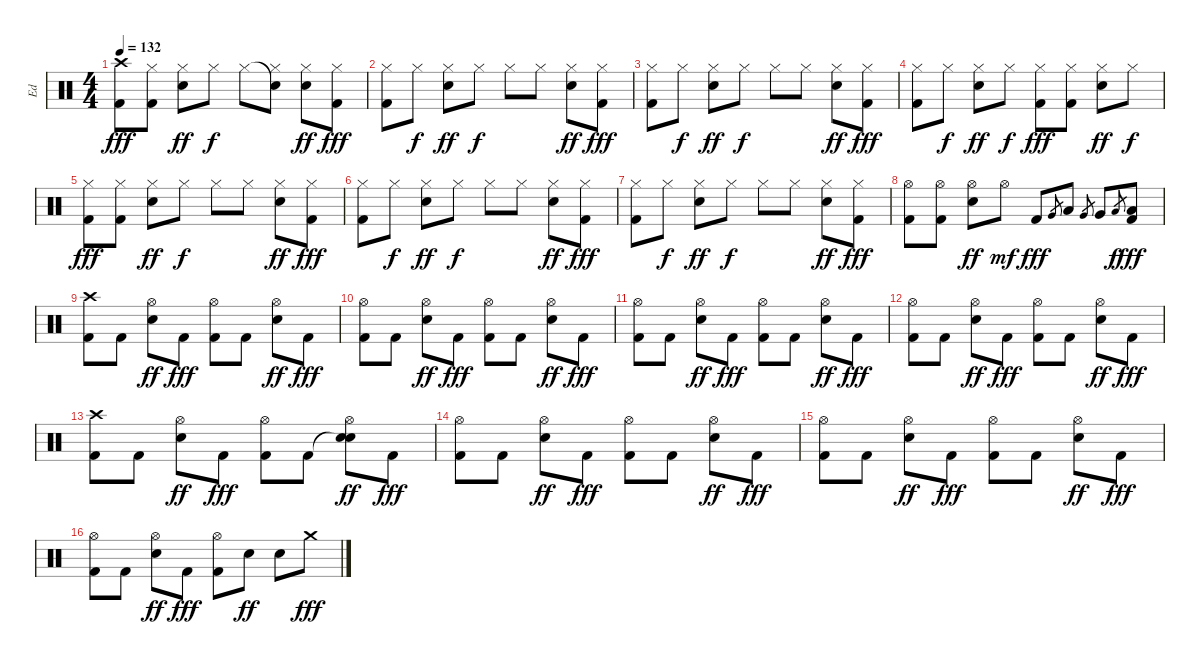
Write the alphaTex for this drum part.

\track ("Ed" "Ed") {instrument percussion}
\staff {score}
\articulation defaults
\ts (4 4)
\tempo 132
\clef neutral
\ks c
("Crash high (hit)" "Kick (hit) 2").8{dy fff} ("Hi-Hat (closed)" "Kick (hit) 2").8 ("Hi-Hat (closed)" "Electric Snare (hit)").8{dy ff} "Hi-Hat (closed)".8{dy f} "Hi-Hat (closed)".8 ("Snare (hit)"{t} "Hi-Hat (closed)").8 ("Hi-Hat (closed)" "Electric Snare (hit)").8{dy ff} ("Hi-Hat (closed)" "Kick (hit) 2").8{dy fff} |
("Hi-Hat (closed)" "Kick (hit) 2").8 "Hi-Hat (closed)".8{dy f} ("Hi-Hat (closed)" "Electric Snare (hit)").8{dy ff} "Hi-Hat (closed)".8{dy f} "Hi-Hat (closed)".8 "Hi-Hat (closed)".8 ("Hi-Hat (closed)" "Electric Snare (hit)").8{dy ff} ("Hi-Hat (closed)" "Kick (hit) 2").8{dy fff} |
("Hi-Hat (closed)" "Kick (hit) 2").8 "Hi-Hat (closed)".8{dy f} ("Hi-Hat (closed)" "Electric Snare (hit)").8{dy ff} "Hi-Hat (closed)".8{dy f} "Hi-Hat (closed)".8 "Hi-Hat (closed)".8 ("Hi-Hat (closed)" "Electric Snare (hit)").8{dy ff} ("Hi-Hat (closed)" "Kick (hit) 2").8{dy fff} |
("Hi-Hat (closed)" "Kick (hit) 2").8 "Hi-Hat (closed)".8{dy f} ("Hi-Hat (closed)" "Electric Snare (hit)").8{dy ff} "Hi-Hat (closed)".8{dy f} ("Hi-Hat (closed)" "Kick (hit) 2").8{dy fff} ("Hi-Hat (closed)" "Kick (hit) 2").8 ("Hi-Hat (closed)" "Electric Snare (hit)").8{dy ff} "Hi-Hat (closed)".8{dy f} |
("Hi-Hat (closed)" "Kick (hit) 2").8{dy fff} ("Hi-Hat (closed)" "Kick (hit) 2").8 ("Hi-Hat (closed)" "Electric Snare (hit)").8{dy ff} "Hi-Hat (closed)".8{dy f} "Hi-Hat (closed)".8 "Hi-Hat (closed)".8 ("Hi-Hat (closed)" "Electric Snare (hit)").8{dy ff} ("Hi-Hat (closed)" "Kick (hit) 2").8{dy fff} |
("Hi-Hat (closed)" "Kick (hit) 2").8 "Hi-Hat (closed)".8{dy f} ("Hi-Hat (closed)" "Electric Snare (hit)").8{dy ff} "Hi-Hat (closed)".8{dy f} "Hi-Hat (closed)".8 "Hi-Hat (closed)".8 ("Hi-Hat (closed)" "Electric Snare (hit)").8{dy ff} ("Hi-Hat (closed)" "Kick (hit) 2").8{dy fff} |
("Hi-Hat (closed)" "Kick (hit) 2").8 "Hi-Hat (closed)".8{dy f} ("Hi-Hat (closed)" "Electric Snare (hit)").8{dy ff} "Hi-Hat (closed)".8{dy f} "Hi-Hat (closed)".8 "Hi-Hat (closed)".8 ("Hi-Hat (closed)" "Electric Snare (hit)").8{dy ff} ("Hi-Hat (closed)" "Kick (hit) 2").8{dy fff} |
("Hi-Hat (open)" "Kick (hit) 2").8 ("Hi-Hat (open)" "Kick (hit) 2").8 ("Hi-Hat (open)" "Electric Snare (hit)").8{dy ff} "Hi-Hat (open)".8{dy mf} "Kick (hit) 2".8{dy fff} "Very Low Tom (hit)".8{gr} "Low Tom (hit)".8 "Very Low Tom (hit)".8{gr} "Very Low Tom (hit)".8 "Low Floor Tom (hit)".8{gr dy f} ("Low Floor Tom (hit)" "Kick (hit) 2").8{dy fff} |
("Crash high (hit)" "Kick (hit) 2").8 "Kick (hit) 2".8 ("Hi-Hat (open)" "Electric Snare (hit)").8{dy ff} "Kick (hit) 2".8{dy fff} ("Hi-Hat (open)" "Kick (hit) 2").8 "Kick (hit) 2".8 ("Hi-Hat (open)" "Electric Snare (hit)").8{dy ff} "Kick (hit) 2".8{dy fff} |
("Hi-Hat (open)" "Kick (hit) 2").8 "Kick (hit) 2".8 ("Hi-Hat (open)" "Electric Snare (hit)").8{dy ff} "Kick (hit) 2".8{dy fff} ("Hi-Hat (open)" "Kick (hit) 2").8 "Kick (hit) 2".8 ("Hi-Hat (open)" "Electric Snare (hit)").8{dy ff} "Kick (hit) 2".8{dy fff} |
("Hi-Hat (open)" "Kick (hit) 2").8 "Kick (hit) 2".8 ("Hi-Hat (open)" "Electric Snare (hit)").8{dy ff} "Kick (hit) 2".8{dy fff} ("Hi-Hat (open)" "Kick (hit) 2").8 "Kick (hit) 2".8 ("Hi-Hat (open)" "Electric Snare (hit)").8{dy ff} "Kick (hit) 2".8{dy fff} |
("Hi-Hat (open)" "Kick (hit) 2").8 "Kick (hit) 2".8 ("Hi-Hat (open)" "Electric Snare (hit)").8{dy ff} "Kick (hit) 2".8{dy fff} ("Hi-Hat (open)" "Kick (hit) 2").8 "Kick (hit) 2".8 ("Hi-Hat (open)" "Electric Snare (hit)").8{dy ff} "Kick (hit) 2".8{dy fff} |
("Crash high (hit)" "Kick (hit) 2").8 "Kick (hit) 2".8 ("Hi-Hat (open)" "Electric Snare (hit)").8{dy ff} "Kick (hit) 2".8{dy fff} ("Hi-Hat (open)" "Kick (hit) 2").8 "Kick (hit) 2".8 ("Snare (hit)"{t} "Hi-Hat (open)" "Electric Snare (hit)").8{dy ff} "Kick (hit) 2".8{dy fff} |
("Hi-Hat (open)" "Kick (hit) 2").8 "Kick (hit) 2".8 ("Hi-Hat (open)" "Electric Snare (hit)").8{dy ff} "Kick (hit) 2".8{dy fff} ("Hi-Hat (open)" "Kick (hit) 2").8 "Kick (hit) 2".8 ("Hi-Hat (open)" "Electric Snare (hit)").8{dy ff} "Kick (hit) 2".8{dy fff} |
("Hi-Hat (open)" "Kick (hit) 2").8 "Kick (hit) 2".8 ("Hi-Hat (open)" "Electric Snare (hit)").8{dy ff} "Kick (hit) 2".8{dy fff} ("Hi-Hat (open)" "Kick (hit) 2").8 "Kick (hit) 2".8 ("Hi-Hat (open)" "Electric Snare (hit)").8{dy ff} "Kick (hit) 2".8{dy fff} |
("Hi-Hat (open)" "Kick (hit) 2").8 "Kick (hit) 2".8 ("Hi-Hat (open)" "Electric Snare (hit)").8{dy ff} "Kick (hit) 2".8{dy fff} ("Hi-Hat (open)" "Kick (hit) 2").8 "Electric Snare (hit)".8{dy ff} "Electric Snare (hit)".8 "Crash medium (hit)".8{dy fff}
